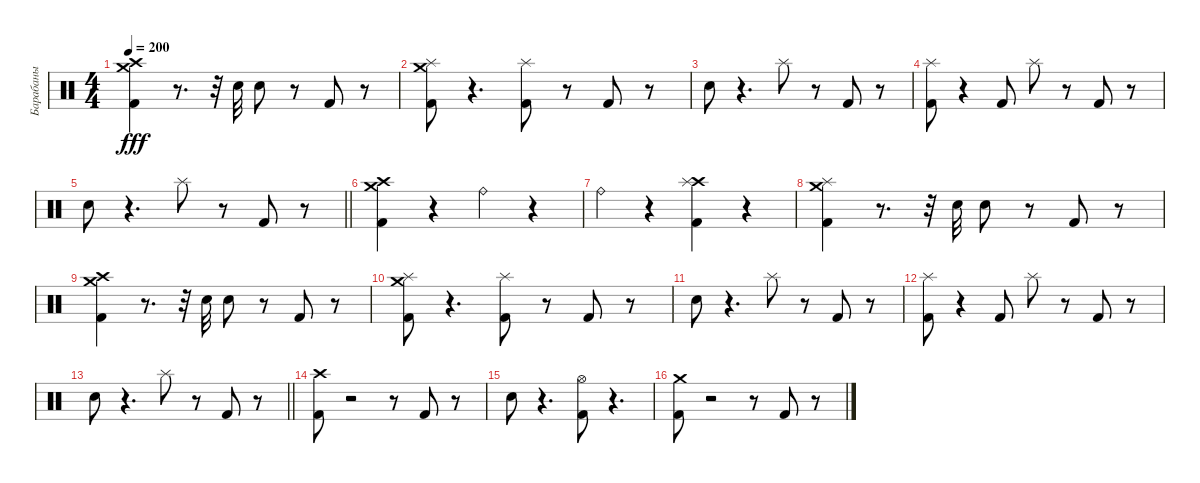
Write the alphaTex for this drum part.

\track ("Барабаны" "Барабаны") {instrument percussion}
\staff {score}
\articulation defaults
\ts (4 4)
\tempo 200
\clef neutral
\ks c
("Kick (hit) 2" "Crash high (hit)" "Crash medium (hit)").4{dy fff} r.8{d} r.32 "Snare (hit) 2".32 "Snare (hit) 2".8 r.8 "Kick (hit) 2".8 r.8 |
("Kick (hit) 2" "Splash (hit)" "Crash medium (hit)").8 r.4{d} ("Kick (hit) 2" "Splash (hit)").8 r.8 "Kick (hit) 2".8 r.8 |
"Snare (hit) 2".8 r.4{d} "Splash (hit)".8 r.8 "Kick (hit) 2".8 r.8 |
("Kick (hit) 2" "Splash (hit)").8 r.4 "Kick (hit) 2".8 "Splash (hit)".8 r.8 "Kick (hit) 2".8 r.8 |
\barLineRight lightlight "Snare (hit) 2".8
r.4{d} "Splash (hit)".8 r.8 "Kick (hit) 2".8 r.8 |
("Kick (hit) 2" "Crash high (hit)" "Crash medium (hit)").4 r.4 "Ride (bell)".4 r.4 |
"Ride (bell)".4 r.4 ("Kick (hit) 2" "Crash high (hit)" "Splash (hit)").4 r.4 |
("Kick (hit) 2" "Splash (hit)" "Crash medium (hit)").4 r.8{d} r.32 "Snare (hit) 2".32 "Snare (hit) 2".8 r.8 "Kick (hit) 2".8 r.8 |
("Kick (hit) 2" "Crash high (hit)" "Crash medium (hit)").4 r.8{d} r.32 "Snare (hit) 2".32 "Snare (hit) 2".8 r.8 "Kick (hit) 2".8 r.8 |
("Kick (hit) 2" "Splash (hit)" "Crash medium (hit)").8 r.4{d} ("Kick (hit) 2" "Splash (hit)").8 r.8 "Kick (hit) 2".8 r.8 |
"Snare (hit) 2".8 r.4{d} "Splash (hit)".8 r.8 "Kick (hit) 2".8 r.8 |
("Kick (hit) 2" "Splash (hit)").8 r.4 "Kick (hit) 2".8 "Splash (hit)".8 r.8 "Kick (hit) 2".8 r.8 |
\barLineRight lightlight "Snare (hit) 2".8
r.4{d} "Splash (hit)".8 r.8 "Kick (hit) 2".8 r.8 |
\section ("" " ")
("Kick (hit) 2" "Crash high (hit)").8 r.2 r.8 "Kick (hit) 2".8 r.8 |
"Snare (hit) 2".8 r.4{d} ("Kick (hit) 2" "Hi-Hat (open)").8 r.4{d} |
("Kick (hit) 2" "Crash medium (hit)").8 r.2 r.8 "Kick (hit) 2".8 r.8
